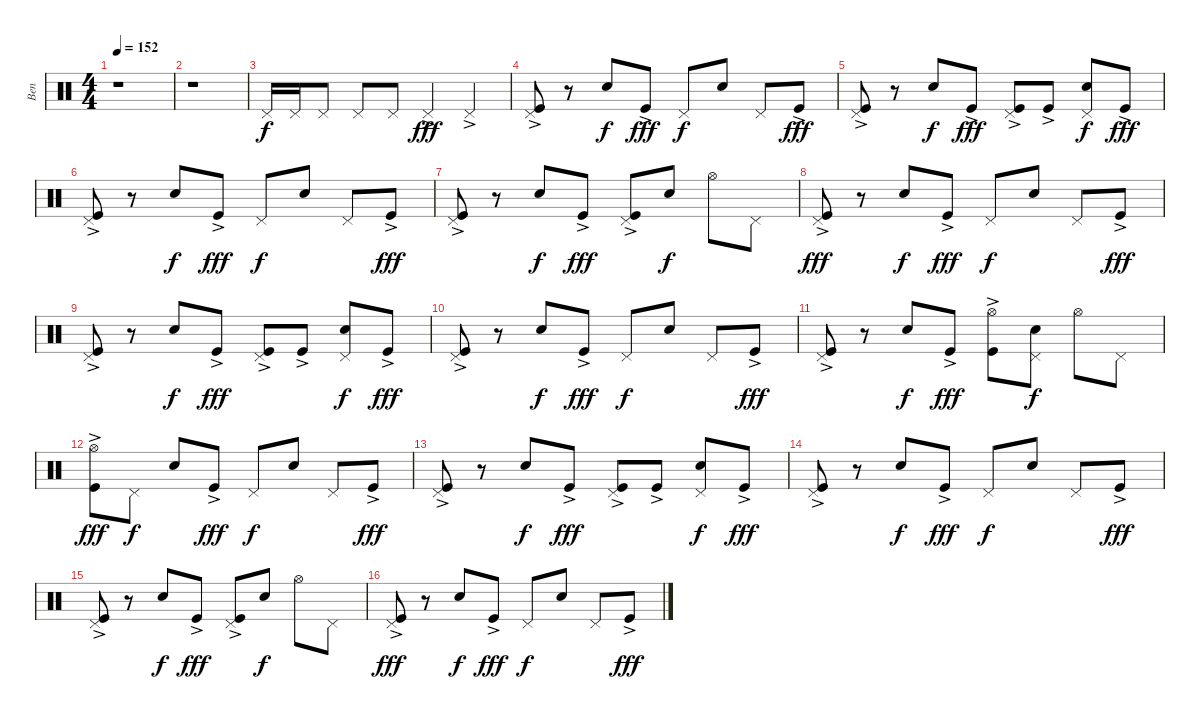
\track ("Ben" "Ben") {instrument percussion}
\staff {score}
\articulation defaults
\ts (4 4)
\tempo 152
\clef neutral
\ks c
r.1{dy fff} |
r.1 |
"Pedal Hi-Hat (hit)".16{dy f} "Pedal Hi-Hat (hit)".16 "Pedal Hi-Hat (hit)".8 "Pedal Hi-Hat (hit)".8 "Pedal Hi-Hat (hit)".8 "Pedal Hi-Hat (hit)"{ac}.4{dy fff} "Pedal Hi-Hat (hit)"{ac}.4 |
("Pedal Hi-Hat (hit)" "Kick (hit)"{ac}).8 r.8 "Electric Snare (hit)".8{dy f} "Kick (hit)"{ac}.8{dy fff} "Pedal Hi-Hat (hit)".8{dy f} "Electric Snare (hit)".8 "Pedal Hi-Hat (hit)".8 "Kick (hit)"{ac}.8{dy fff} |
("Pedal Hi-Hat (hit)" "Kick (hit)"{ac}).8 r.8 "Electric Snare (hit)".8{dy f} "Kick (hit)"{ac}.8{dy fff} ("Pedal Hi-Hat (hit)" "Kick (hit)"{ac}).8 "Kick (hit)"{ac}.8 ("Pedal Hi-Hat (hit)" "Electric Snare (hit)").8{dy f} "Kick (hit)"{ac}.8{dy fff} |
("Pedal Hi-Hat (hit)" "Kick (hit)"{ac}).8 r.8 "Electric Snare (hit)".8{dy f} "Kick (hit)"{ac}.8{dy fff} "Pedal Hi-Hat (hit)".8{dy f} "Electric Snare (hit)".8 "Pedal Hi-Hat (hit)".8 "Kick (hit)"{ac}.8{dy fff} |
("Pedal Hi-Hat (hit)" "Kick (hit)"{ac}).8 r.8 "Electric Snare (hit)".8{dy f} "Kick (hit)"{ac}.8{dy fff} ("Pedal Hi-Hat (hit)" "Kick (hit)"{ac}).8 "Electric Snare (hit)".8{dy f} "Hi-Hat (open)".8 "Pedal Hi-Hat (hit)".8 |
("Pedal Hi-Hat (hit)" "Kick (hit)"{ac}).8{dy fff} r.8 "Electric Snare (hit)".8{dy f} "Kick (hit)"{ac}.8{dy fff} "Pedal Hi-Hat (hit)".8{dy f} "Electric Snare (hit)".8 "Pedal Hi-Hat (hit)".8 "Kick (hit)"{ac}.8{dy fff} |
("Pedal Hi-Hat (hit)" "Kick (hit)"{ac}).8 r.8 "Electric Snare (hit)".8{dy f} "Kick (hit)"{ac}.8{dy fff} ("Pedal Hi-Hat (hit)" "Kick (hit)"{ac}).8 "Kick (hit)"{ac}.8 ("Pedal Hi-Hat (hit)" "Electric Snare (hit)").8{dy f} "Kick (hit)"{ac}.8{dy fff} |
("Pedal Hi-Hat (hit)" "Kick (hit)"{ac}).8 r.8 "Electric Snare (hit)".8{dy f} "Kick (hit)"{ac}.8{dy fff} "Pedal Hi-Hat (hit)".8{dy f} "Electric Snare (hit)".8 "Pedal Hi-Hat (hit)".8 "Kick (hit)"{ac}.8{dy fff} |
("Pedal Hi-Hat (hit)" "Kick (hit)"{ac}).8 r.8 "Electric Snare (hit)".8{dy f} "Kick (hit)"{ac}.8{dy fff} ("Hi-Hat (open)" "Kick (hit)"{ac}).8 ("Pedal Hi-Hat (hit)" "Electric Snare (hit)").8{dy f} "Hi-Hat (open)".8 "Pedal Hi-Hat (hit)".8 |
("Hi-Hat (open)" "Kick (hit)"{ac}).8{dy fff} "Pedal Hi-Hat (hit)".8{dy f} "Electric Snare (hit)".8 "Kick (hit)"{ac}.8{dy fff} "Pedal Hi-Hat (hit)".8{dy f} "Electric Snare (hit)".8 "Pedal Hi-Hat (hit)".8 "Kick (hit)"{ac}.8{dy fff} |
("Pedal Hi-Hat (hit)" "Kick (hit)"{ac}).8 r.8 "Electric Snare (hit)".8{dy f} "Kick (hit)"{ac}.8{dy fff} ("Pedal Hi-Hat (hit)" "Kick (hit)"{ac}).8 "Kick (hit)"{ac}.8 ("Pedal Hi-Hat (hit)" "Electric Snare (hit)").8{dy f} "Kick (hit)"{ac}.8{dy fff} |
("Pedal Hi-Hat (hit)" "Kick (hit)"{ac}).8 r.8 "Electric Snare (hit)".8{dy f} "Kick (hit)"{ac}.8{dy fff} "Pedal Hi-Hat (hit)".8{dy f} "Electric Snare (hit)".8 "Pedal Hi-Hat (hit)".8 "Kick (hit)"{ac}.8{dy fff} |
("Pedal Hi-Hat (hit)" "Kick (hit)"{ac}).8 r.8 "Electric Snare (hit)".8{dy f} "Kick (hit)"{ac}.8{dy fff} ("Pedal Hi-Hat (hit)" "Kick (hit)"{ac}).8 "Electric Snare (hit)".8{dy f} "Hi-Hat (open)".8 "Pedal Hi-Hat (hit)".8 |
("Pedal Hi-Hat (hit)" "Kick (hit)"{ac}).8{dy fff} r.8 "Electric Snare (hit)".8{dy f} "Kick (hit)"{ac}.8{dy fff} "Pedal Hi-Hat (hit)".8{dy f} "Electric Snare (hit)".8 "Pedal Hi-Hat (hit)".8 "Kick (hit)"{ac}.8{dy fff}
